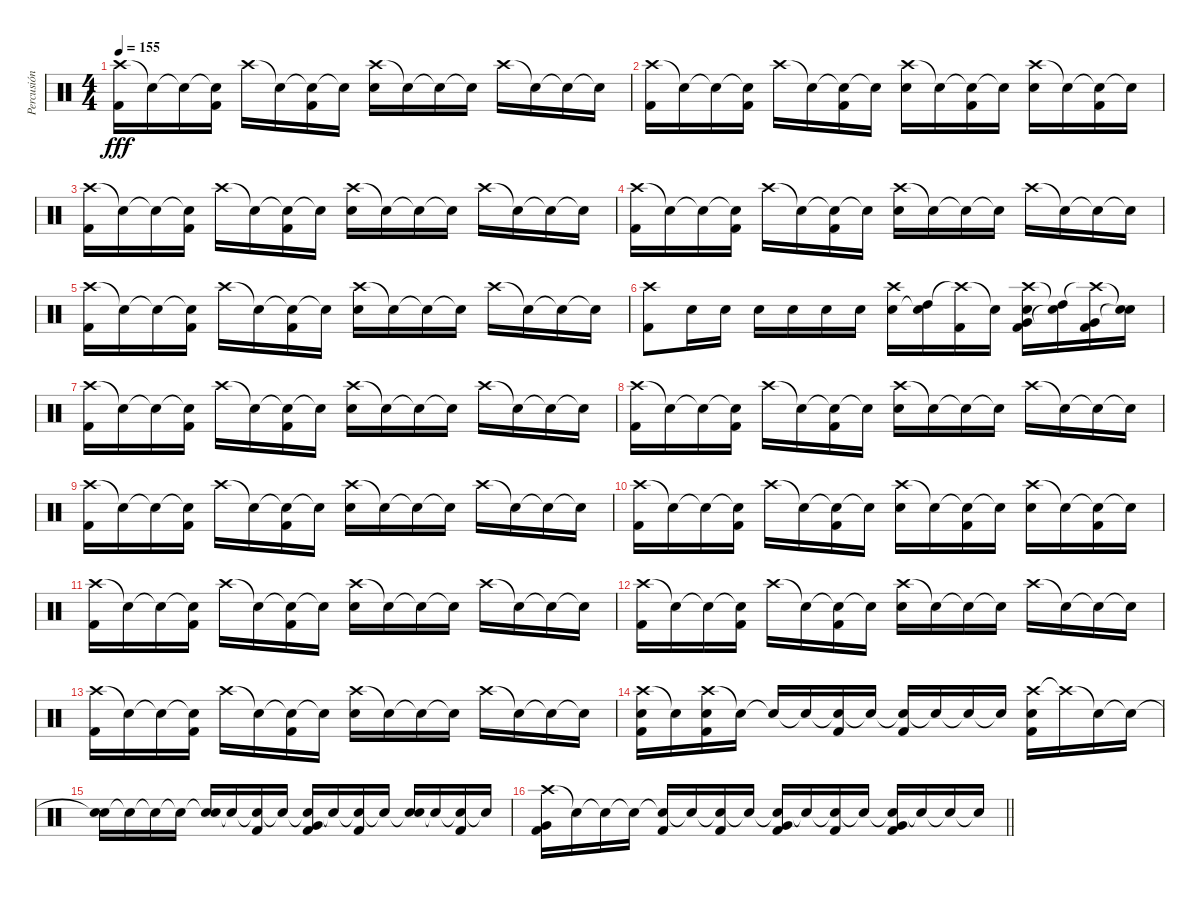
\track ("Percusión" "Percusión") {instrument percussion}
\staff {score}
\articulation defaults
\ts (4 4)
\tempo 155
\clef neutral
\ks c
("Crash high (hit)" "Kick (hit) 2").16{dy fff} "Snare (hit)"{t}.16 "Snare (hit)"{t}.16 ("Snare (hit)"{t} "Kick (hit) 2").16 "Crash high (hit)".16 "Snare (hit)"{t}.16 ("Snare (hit)"{t} "Kick (hit) 2").16 "Snare (hit)"{t}.16 ("Crash high (hit)" "Electric Snare (hit)").16 "Snare (hit)"{t}.16 "Snare (hit)"{t}.16 "Snare (hit)"{t}.16 "Crash high (hit)".16 "Snare (hit)"{t}.16 "Snare (hit)"{t}.16 "Snare (hit)"{t}.16 |
("Crash high (hit)" "Kick (hit) 2").16 "Snare (hit)"{t}.16 "Snare (hit)"{t}.16 ("Snare (hit)"{t} "Kick (hit) 2").16 "Crash high (hit)".16 "Snare (hit)"{t}.16 ("Snare (hit)"{t} "Kick (hit) 2").16 "Snare (hit)"{t}.16 ("Crash high (hit)" "Electric Snare (hit)").16 "Snare (hit)"{t}.16 ("Snare (hit)"{t} "Kick (hit) 2").16 "Snare (hit)"{t}.16 ("Crash high (hit)" "Electric Snare (hit)").16 "Snare (hit)"{t}.16 ("Snare (hit)"{t} "Kick (hit) 2").16 "Snare (hit)"{t}.16 |
("Crash high (hit)" "Kick (hit) 2").16 "Snare (hit)"{t}.16 "Snare (hit)"{t}.16 ("Snare (hit)"{t} "Kick (hit) 2").16 "Crash high (hit)".16 "Snare (hit)"{t}.16 ("Snare (hit)"{t} "Kick (hit) 2").16 "Snare (hit)"{t}.16 ("Crash high (hit)" "Electric Snare (hit)").16 "Snare (hit)"{t}.16 "Snare (hit)"{t}.16 "Snare (hit)"{t}.16 "Crash high (hit)".16 "Snare (hit)"{t}.16 "Snare (hit)"{t}.16 "Snare (hit)"{t}.16 |
("Crash high (hit)" "Kick (hit) 2").16 "Snare (hit)"{t}.16 "Snare (hit)"{t}.16 ("Snare (hit)"{t} "Kick (hit) 2").16 "Crash high (hit)".16 "Snare (hit)"{t}.16 ("Snare (hit)"{t} "Kick (hit) 2").16 "Snare (hit)"{t}.16 ("Crash high (hit)" "Electric Snare (hit)").16 "Snare (hit)"{t}.16 "Snare (hit)"{t}.16 "Snare (hit)"{t}.16 "Crash high (hit)".16 "Snare (hit)"{t}.16 "Snare (hit)"{t}.16 "Snare (hit)"{t}.16 |
("Crash high (hit)" "Kick (hit) 2").16 "Snare (hit)"{t}.16 "Snare (hit)"{t}.16 ("Snare (hit)"{t} "Kick (hit) 2").16 "Crash high (hit)".16 "Snare (hit)"{t}.16 ("Snare (hit)"{t} "Kick (hit) 2").16 "Snare (hit)"{t}.16 ("Crash high (hit)" "Electric Snare (hit)").16 "Snare (hit)"{t}.16 "Snare (hit)"{t}.16 "Snare (hit)"{t}.16 "Crash high (hit)".16 "Snare (hit)"{t}.16 "Snare (hit)"{t}.16 "Snare (hit)"{t}.16 |
("Crash high (hit)" "Kick (hit) 2").8 "Electric Snare (hit)".16 "Electric Snare (hit)".16 "Electric Snare (hit)".16 "Electric Snare (hit)".16 "Electric Snare (hit)".16 "Electric Snare (hit)".16 ("Crash high (hit)" "Electric Snare (hit)").16 ("High Tom (hit)" "Electric Snare (hit)"{t}).16 ("Crash high (hit)"{t} "Kick (hit) 2").16 "Electric Snare (hit)"{t}.16 ("Crash high (hit)" "Kick (hit) 2" "Electric Snare (hit)" "Very Low Tom (hit)").16 ("High Tom (hit)"{t} "Snare (hit)"{t}).16 ("Crash high (hit)"{t} "Very Low Tom (hit)" "Kick (hit) 2").16 ("Snare (hit)"{t} "Snare (hit)"{t}).16 |
("Crash high (hit)" "Kick (hit) 2").16 "Snare (hit)"{t}.16 "Snare (hit)"{t}.16 ("Snare (hit)"{t} "Kick (hit) 2").16 "Crash high (hit)".16 "Snare (hit)"{t}.16 ("Snare (hit)"{t} "Kick (hit) 2").16 "Snare (hit)"{t}.16 ("Crash high (hit)" "Electric Snare (hit)").16 "Snare (hit)"{t}.16 "Snare (hit)"{t}.16 "Snare (hit)"{t}.16 "Crash high (hit)".16 "Snare (hit)"{t}.16 "Snare (hit)"{t}.16 "Snare (hit)"{t}.16 |
("Crash high (hit)" "Kick (hit) 2").16 "Snare (hit)"{t}.16 "Snare (hit)"{t}.16 ("Snare (hit)"{t} "Kick (hit) 2").16 "Crash high (hit)".16 "Snare (hit)"{t}.16 ("Snare (hit)"{t} "Kick (hit) 2").16 "Snare (hit)"{t}.16 ("Crash high (hit)" "Electric Snare (hit)").16 "Snare (hit)"{t}.16 "Snare (hit)"{t}.16 "Snare (hit)"{t}.16 "Crash high (hit)".16 "Snare (hit)"{t}.16 "Snare (hit)"{t}.16 "Snare (hit)"{t}.16 |
("Crash high (hit)" "Kick (hit) 2").16 "Snare (hit)"{t}.16 "Snare (hit)"{t}.16 ("Snare (hit)"{t} "Kick (hit) 2").16 "Crash high (hit)".16 "Snare (hit)"{t}.16 ("Snare (hit)"{t} "Kick (hit) 2").16 "Snare (hit)"{t}.16 ("Crash high (hit)" "Electric Snare (hit)").16 "Snare (hit)"{t}.16 "Snare (hit)"{t}.16 "Snare (hit)"{t}.16 "Crash high (hit)".16 "Snare (hit)"{t}.16 "Snare (hit)"{t}.16 "Snare (hit)"{t}.16 |
("Crash high (hit)" "Kick (hit) 2").16 "Snare (hit)"{t}.16 "Snare (hit)"{t}.16 ("Snare (hit)"{t} "Kick (hit) 2").16 "Crash high (hit)".16 "Snare (hit)"{t}.16 ("Snare (hit)"{t} "Kick (hit) 2").16 "Snare (hit)"{t}.16 ("Crash high (hit)" "Electric Snare (hit)").16 "Snare (hit)"{t}.16 ("Snare (hit)"{t} "Kick (hit) 2").16 "Snare (hit)"{t}.16 ("Crash high (hit)" "Electric Snare (hit)").16 "Snare (hit)"{t}.16 ("Snare (hit)"{t} "Kick (hit) 2").16 "Snare (hit)"{t}.16 |
("Crash high (hit)" "Kick (hit) 2").16 "Snare (hit)"{t}.16 "Snare (hit)"{t}.16 ("Snare (hit)"{t} "Kick (hit) 2").16 "Crash high (hit)".16 "Snare (hit)"{t}.16 ("Snare (hit)"{t} "Kick (hit) 2").16 "Snare (hit)"{t}.16 ("Crash high (hit)" "Electric Snare (hit)").16 "Snare (hit)"{t}.16 "Snare (hit)"{t}.16 "Snare (hit)"{t}.16 "Crash high (hit)".16 "Snare (hit)"{t}.16 "Snare (hit)"{t}.16 "Snare (hit)"{t}.16 |
("Crash high (hit)" "Kick (hit) 2").16 "Snare (hit)"{t}.16 "Snare (hit)"{t}.16 ("Snare (hit)"{t} "Kick (hit) 2").16 "Crash high (hit)".16 "Snare (hit)"{t}.16 ("Snare (hit)"{t} "Kick (hit) 2").16 "Snare (hit)"{t}.16 ("Crash high (hit)" "Electric Snare (hit)").16 "Snare (hit)"{t}.16 "Snare (hit)"{t}.16 "Snare (hit)"{t}.16 "Crash high (hit)".16 "Snare (hit)"{t}.16 "Snare (hit)"{t}.16 "Snare (hit)"{t}.16 |
("Crash high (hit)" "Kick (hit) 2").16 "Snare (hit)"{t}.16 "Snare (hit)"{t}.16 ("Snare (hit)"{t} "Kick (hit) 2").16 "Crash high (hit)".16 "Snare (hit)"{t}.16 ("Snare (hit)"{t} "Kick (hit) 2").16 "Snare (hit)"{t}.16 ("Crash high (hit)" "Electric Snare (hit)").16 "Snare (hit)"{t}.16 "Snare (hit)"{t}.16 "Snare (hit)"{t}.16 "Crash high (hit)".16 "Snare (hit)"{t}.16 "Snare (hit)"{t}.16 "Snare (hit)"{t}.16 |
("Crash high (hit)" "Electric Snare (hit)" "Kick (hit) 2").16 "Snare (hit)"{t}.16 ("Crash high (hit)" "Electric Snare (hit)" "Kick (hit) 2").16 "Snare (hit)"{t}.16 "Snare (hit)"{t}.16 "Snare (hit)"{t}.16 ("Snare (hit)"{t} "Kick (hit) 2").16 "Snare (hit)"{t}.16 ("Snare (hit)"{t} "Kick (hit) 2").16 "Snare (hit)"{t}.16 "Snare (hit)"{t}.16 "Snare (hit)"{t}.16 ("Crash high (hit)" "Electric Snare (hit)" "Kick (hit) 2").16 "Crash high (hit)"{t}.16 "Snare (hit)"{t}.16 "Snare (hit)"{t}.16 |
("Snare (hit)"{t} "Electric Snare (hit)").16 "Snare (hit)"{t}.16 "Snare (hit)"{t}.16 "Snare (hit)"{t}.16 ("Snare (hit)"{t} "Electric Snare (hit)").16 "Snare (hit)"{t}.16 ("Snare (hit)"{t} "Kick (hit) 2").16 "Snare (hit)"{t}.16 ("Snare (hit)"{t} "Very Low Tom (hit)" "Kick (hit) 2").16 "Snare (hit)"{t}.16 ("Snare (hit)"{t} "Kick (hit) 2").16 "Snare (hit)"{t}.16 ("Snare (hit)"{t} "Electric Snare (hit)").16 "Snare (hit)"{t}.16 ("Snare (hit)"{t} "Kick (hit) 2").16 "Snare (hit)"{t}.16 |
\barLineRight lightlight
("Crash high (hit)" "Very Low Tom (hit)" "Kick (hit) 2").16 "Snare (hit)"{t}.16 "Snare (hit)"{t}.16 "Snare (hit)"{t}.16 ("Snare (hit)"{t} "Kick (hit) 2").16 "Snare (hit)"{t}.16 ("Snare (hit)"{t} "Kick (hit) 2").16 "Snare (hit)"{t}.16 ("Snare (hit)"{t} "Very Low Tom (hit)" "Kick (hit) 2").16 "Snare (hit)"{t}.16 ("Snare (hit)"{t} "Kick (hit) 2").16 "Snare (hit)"{t}.16 ("Snare (hit)"{t} "Very Low Tom (hit)" "Kick (hit) 2").16 "Snare (hit)"{t}.16 "Snare (hit)"{t}.16 "Snare (hit)"{t}.16
